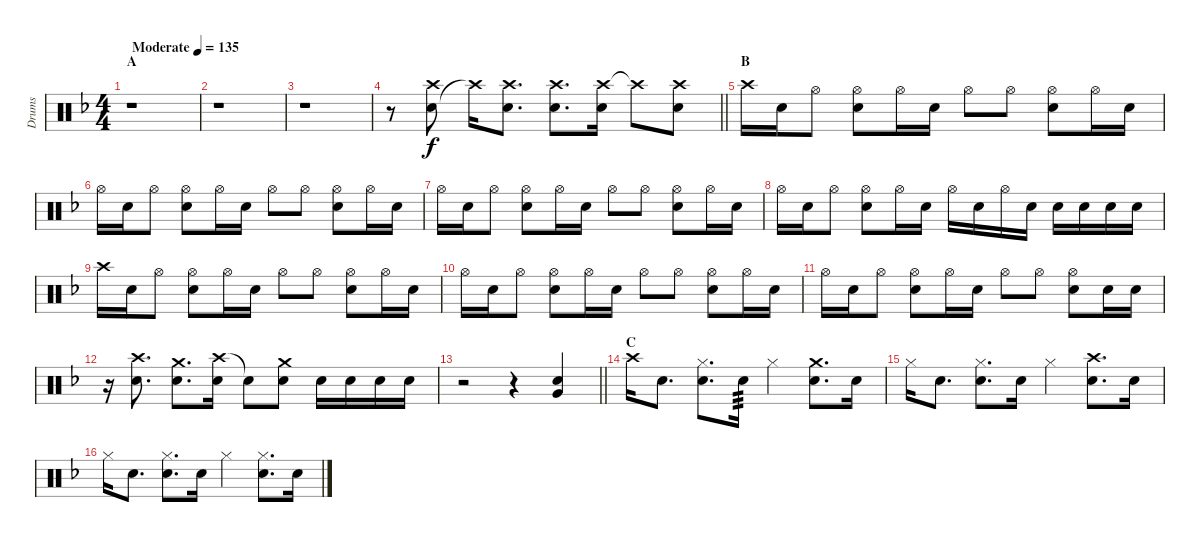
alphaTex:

\track ("Drums" "Drums") {instrument percussion}
\staff {score}
\articulation defaults
\ts (4 4)
\section ("" "A")
\tempo (135 "Moderate")
\clef neutral
\ks f
r.1{dy f} |
r.1 |
r.1 |
\barLineRight lightlight
r.8 ("Snare (hit) 2" "Crash high (hit)").8 "Crash high (hit)"{t}.16 ("Crash high (hit)" "Snare (hit) 2").8{d} ("Crash high (hit)" "Snare (hit) 2").8{d} ("Crash high (hit)" "Snare (hit) 2").16 "Crash high (hit)"{t}.8 ("Crash high (hit)" "Snare (hit) 2").8 |
\section ("" "B")
"Crash high (hit)".16 "Snare (hit) 2".16 "Hi-Hat (open)".8 ("Hi-Hat (open)" "Snare (hit) 2").8 "Hi-Hat (open)".16 "Snare (hit) 2".16 "Hi-Hat (open)".8 "Hi-Hat (open)".8 ("Hi-Hat (open)" "Snare (hit) 2").8 "Hi-Hat (open)".16 "Snare (hit) 2".16 |
"Hi-Hat (open)".16 "Snare (hit) 2".16 "Hi-Hat (open)".8 ("Hi-Hat (open)" "Snare (hit) 2").8 "Hi-Hat (open)".16 "Snare (hit) 2".16 "Hi-Hat (open)".8 "Hi-Hat (open)".8 ("Hi-Hat (open)" "Snare (hit) 2").8 "Hi-Hat (open)".16 "Snare (hit) 2".16 |
"Hi-Hat (open)".16 "Snare (hit) 2".16 "Hi-Hat (open)".8 ("Hi-Hat (open)" "Snare (hit) 2").8 "Hi-Hat (open)".16 "Snare (hit) 2".16 "Hi-Hat (open)".8 "Hi-Hat (open)".8 ("Hi-Hat (open)" "Snare (hit) 2").8 "Hi-Hat (open)".16 "Snare (hit) 2".16 |
"Hi-Hat (open)".16 "Snare (hit) 2".16 "Hi-Hat (open)".8 ("Hi-Hat (open)" "Snare (hit) 2").8 "Hi-Hat (open)".16 "Snare (hit) 2".16 "Hi-Hat (open)".16 "Snare (hit) 2".16 "Hi-Hat (open)".16 "Snare (hit) 2".16 "Snare (hit) 2".16 "Snare (hit) 2".16 "Snare (hit) 2".16 "Snare (hit) 2".16 |
"Crash high (hit)".16 "Snare (hit) 2".16 "Hi-Hat (open)".8 ("Hi-Hat (open)" "Snare (hit) 2").8 "Hi-Hat (open)".16 "Snare (hit) 2".16 "Hi-Hat (open)".8 "Hi-Hat (open)".8 ("Hi-Hat (open)" "Snare (hit) 2").8 "Hi-Hat (open)".16 "Snare (hit) 2".16 |
"Hi-Hat (open)".16 "Snare (hit) 2".16 "Hi-Hat (open)".8 ("Hi-Hat (open)" "Snare (hit) 2").8 "Hi-Hat (open)".16 "Snare (hit) 2".16 "Hi-Hat (open)".8 "Hi-Hat (open)".8 ("Hi-Hat (open)" "Snare (hit) 2").8 "Hi-Hat (open)".16 "Snare (hit) 2".16 |
"Hi-Hat (open)".16 "Snare (hit) 2".16 "Hi-Hat (open)".8 ("Hi-Hat (open)" "Snare (hit) 2").8 "Hi-Hat (open)".16 "Snare (hit) 2".16 "Hi-Hat (open)".8 "Hi-Hat (open)".8 ("Hi-Hat (open)" "Snare (hit) 2").8 "Snare (hit) 2".16 "Snare (hit) 2".16 |
r.16 ("Crash high (hit)" "Snare (hit) 2").8{d} ("Crash medium (hit)" "Snare (hit) 2").8{d} ("Crash high (hit)" "Snare (hit) 2").16 "Snare (hit)"{t}.8 ("Crash medium (hit)" "Snare (hit) 2").8 "Snare (hit) 2".16 "Snare (hit) 2".16 "Snare (hit) 2".16 "Snare (hit) 2".16 |
\barLineRight lightlight
r.2 r.4 ("Very Low Tom (hit)" "Snare (hit) 2").4 |
\section ("" "C")
"Crash high (hit)".16 "Snare (hit) 2".8{d} ("Hi-Hat (closed)" "Snare (hit) 2").8{d} "Snare (hit) 2".16{tp 3} "Hi-Hat (closed)".4 ("Crash medium (hit)" "Snare (hit) 2").8{d} "Snare (hit) 2".16 |
"Hi-Hat (closed)".16 "Snare (hit) 2".8{d} ("Hi-Hat (closed)" "Snare (hit) 2").8{d} "Snare (hit) 2".16 "Hi-Hat (closed)".4 ("Crash high (hit)" "Snare (hit) 2").8{d} "Snare (hit) 2".16 |
"Hi-Hat (closed)".16 "Snare (hit) 2".8{d} ("Hi-Hat (closed)" "Snare (hit) 2").8{d} "Snare (hit) 2".16 "Hi-Hat (closed)".4 ("Hi-Hat (closed)" "Snare (hit) 2").8{d} "Snare (hit) 2".16
